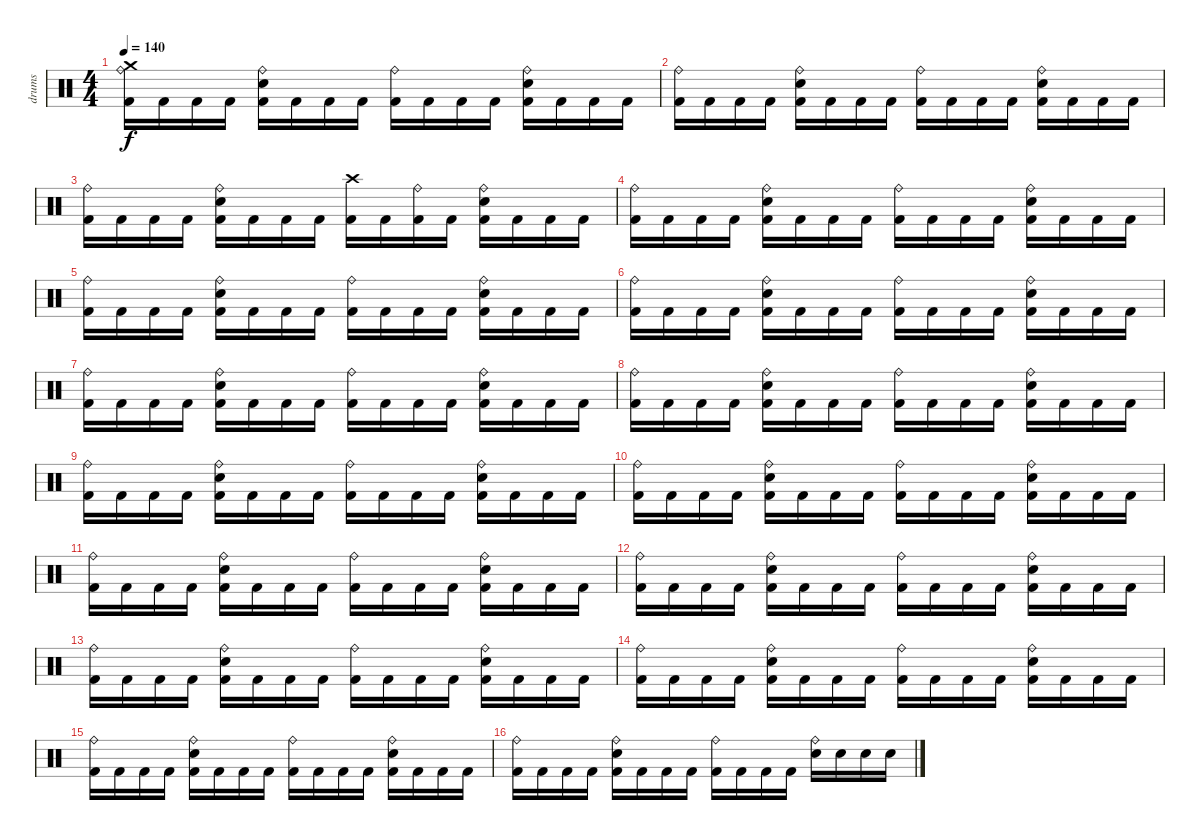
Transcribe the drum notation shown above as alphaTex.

\track ("drums" "drums") {instrument percussion}
\staff {score}
\articulation defaults
\ts (4 4)
\tempo 140
\clef neutral
\ks c
("Crash medium (hit)" "Ride (bell)" "Kick (hit) 2").16{dy f} "Kick (hit) 2".16 "Kick (hit) 2".16 "Kick (hit) 2".16 ("Ride (bell)" "Electric Snare (hit)" "Kick (hit) 2").16 "Kick (hit) 2".16 "Kick (hit) 2".16 "Kick (hit) 2".16 ("Ride (bell)" "Kick (hit) 2").16 "Kick (hit) 2".16 "Kick (hit) 2".16 "Kick (hit) 2".16 ("Ride (bell)" "Electric Snare (hit)" "Kick (hit) 2").16 "Kick (hit) 2".16 "Kick (hit) 2".16 "Kick (hit) 2".16 |
("Ride (bell)" "Kick (hit) 2").16 "Kick (hit) 2".16 "Kick (hit) 2".16 "Kick (hit) 2".16 ("Ride (bell)" "Electric Snare (hit)" "Kick (hit) 2").16 "Kick (hit) 2".16 "Kick (hit) 2".16 "Kick (hit) 2".16 ("Ride (bell)" "Kick (hit) 2").16 "Kick (hit) 2".16 "Kick (hit) 2".16 "Kick (hit) 2".16 ("Ride (bell)" "Electric Snare (hit)" "Kick (hit) 2").16 "Kick (hit) 2".16 "Kick (hit) 2".16 "Kick (hit) 2".16 |
("Ride (bell)" "Kick (hit) 2").16 "Kick (hit) 2".16 "Kick (hit) 2".16 "Kick (hit) 2".16 ("Ride (bell)" "Electric Snare (hit)" "Kick (hit) 2").16 "Kick (hit) 2".16 "Kick (hit) 2".16 "Kick (hit) 2".16 ("Crash high (hit)" "Kick (hit) 2").16 "Kick (hit) 2".16 ("Ride (bell)" "Kick (hit) 2").16 "Kick (hit) 2".16 ("Ride (bell)" "Electric Snare (hit)" "Kick (hit) 2").16 "Kick (hit) 2".16 "Kick (hit) 2".16 "Kick (hit) 2".16 |
("Ride (bell)" "Kick (hit) 2").16 "Kick (hit) 2".16 "Kick (hit) 2".16 "Kick (hit) 2".16 ("Ride (bell)" "Electric Snare (hit)" "Kick (hit) 2").16 "Kick (hit) 2".16 "Kick (hit) 2".16 "Kick (hit) 2".16 ("Ride (bell)" "Kick (hit) 2").16 "Kick (hit) 2".16 "Kick (hit) 2".16 "Kick (hit) 2".16 ("Ride (bell)" "Electric Snare (hit)" "Kick (hit) 2").16 "Kick (hit) 2".16 "Kick (hit) 2".16 "Kick (hit) 2".16 |
("Ride (bell)" "Kick (hit) 2").16 "Kick (hit) 2".16 "Kick (hit) 2".16 "Kick (hit) 2".16 ("Ride (bell)" "Electric Snare (hit)" "Kick (hit) 2").16 "Kick (hit) 2".16 "Kick (hit) 2".16 "Kick (hit) 2".16 ("Ride (bell)" "Kick (hit) 2").16 "Kick (hit) 2".16 "Kick (hit) 2".16 "Kick (hit) 2".16 ("Ride (bell)" "Electric Snare (hit)" "Kick (hit) 2").16 "Kick (hit) 2".16 "Kick (hit) 2".16 "Kick (hit) 2".16 |
("Ride (bell)" "Kick (hit) 2").16 "Kick (hit) 2".16 "Kick (hit) 2".16 "Kick (hit) 2".16 ("Ride (bell)" "Electric Snare (hit)" "Kick (hit) 2").16 "Kick (hit) 2".16 "Kick (hit) 2".16 "Kick (hit) 2".16 ("Ride (bell)" "Kick (hit) 2").16 "Kick (hit) 2".16 "Kick (hit) 2".16 "Kick (hit) 2".16 ("Ride (bell)" "Electric Snare (hit)" "Kick (hit) 2").16 "Kick (hit) 2".16 "Kick (hit) 2".16 "Kick (hit) 2".16 |
("Ride (bell)" "Kick (hit) 2").16 "Kick (hit) 2".16 "Kick (hit) 2".16 "Kick (hit) 2".16 ("Ride (bell)" "Electric Snare (hit)" "Kick (hit) 2").16 "Kick (hit) 2".16 "Kick (hit) 2".16 "Kick (hit) 2".16 ("Ride (bell)" "Kick (hit) 2").16 "Kick (hit) 2".16 "Kick (hit) 2".16 "Kick (hit) 2".16 ("Ride (bell)" "Electric Snare (hit)" "Kick (hit) 2").16 "Kick (hit) 2".16 "Kick (hit) 2".16 "Kick (hit) 2".16 |
("Ride (bell)" "Kick (hit) 2").16 "Kick (hit) 2".16 "Kick (hit) 2".16 "Kick (hit) 2".16 ("Ride (bell)" "Electric Snare (hit)" "Kick (hit) 2").16 "Kick (hit) 2".16 "Kick (hit) 2".16 "Kick (hit) 2".16 ("Ride (bell)" "Kick (hit) 2").16 "Kick (hit) 2".16 "Kick (hit) 2".16 "Kick (hit) 2".16 ("Ride (bell)" "Electric Snare (hit)" "Kick (hit) 2").16 "Kick (hit) 2".16 "Kick (hit) 2".16 "Kick (hit) 2".16 |
("Ride (bell)" "Kick (hit) 2").16 "Kick (hit) 2".16 "Kick (hit) 2".16 "Kick (hit) 2".16 ("Ride (bell)" "Electric Snare (hit)" "Kick (hit) 2").16 "Kick (hit) 2".16 "Kick (hit) 2".16 "Kick (hit) 2".16 ("Ride (bell)" "Kick (hit) 2").16 "Kick (hit) 2".16 "Kick (hit) 2".16 "Kick (hit) 2".16 ("Ride (bell)" "Electric Snare (hit)" "Kick (hit) 2").16 "Kick (hit) 2".16 "Kick (hit) 2".16 "Kick (hit) 2".16 |
("Ride (bell)" "Kick (hit) 2").16 "Kick (hit) 2".16 "Kick (hit) 2".16 "Kick (hit) 2".16 ("Ride (bell)" "Electric Snare (hit)" "Kick (hit) 2").16 "Kick (hit) 2".16 "Kick (hit) 2".16 "Kick (hit) 2".16 ("Ride (bell)" "Kick (hit) 2").16 "Kick (hit) 2".16 "Kick (hit) 2".16 "Kick (hit) 2".16 ("Ride (bell)" "Electric Snare (hit)" "Kick (hit) 2").16 "Kick (hit) 2".16 "Kick (hit) 2".16 "Kick (hit) 2".16 |
("Ride (bell)" "Kick (hit) 2").16 "Kick (hit) 2".16 "Kick (hit) 2".16 "Kick (hit) 2".16 ("Ride (bell)" "Electric Snare (hit)" "Kick (hit) 2").16 "Kick (hit) 2".16 "Kick (hit) 2".16 "Kick (hit) 2".16 ("Ride (bell)" "Kick (hit) 2").16 "Kick (hit) 2".16 "Kick (hit) 2".16 "Kick (hit) 2".16 ("Ride (bell)" "Electric Snare (hit)" "Kick (hit) 2").16 "Kick (hit) 2".16 "Kick (hit) 2".16 "Kick (hit) 2".16 |
("Ride (bell)" "Kick (hit) 2").16 "Kick (hit) 2".16 "Kick (hit) 2".16 "Kick (hit) 2".16 ("Ride (bell)" "Electric Snare (hit)" "Kick (hit) 2").16 "Kick (hit) 2".16 "Kick (hit) 2".16 "Kick (hit) 2".16 ("Ride (bell)" "Kick (hit) 2").16 "Kick (hit) 2".16 "Kick (hit) 2".16 "Kick (hit) 2".16 ("Ride (bell)" "Electric Snare (hit)" "Kick (hit) 2").16 "Kick (hit) 2".16 "Kick (hit) 2".16 "Kick (hit) 2".16 |
("Ride (bell)" "Kick (hit) 2").16 "Kick (hit) 2".16 "Kick (hit) 2".16 "Kick (hit) 2".16 ("Ride (bell)" "Electric Snare (hit)" "Kick (hit) 2").16 "Kick (hit) 2".16 "Kick (hit) 2".16 "Kick (hit) 2".16 ("Ride (bell)" "Kick (hit) 2").16 "Kick (hit) 2".16 "Kick (hit) 2".16 "Kick (hit) 2".16 ("Ride (bell)" "Electric Snare (hit)" "Kick (hit) 2").16 "Kick (hit) 2".16 "Kick (hit) 2".16 "Kick (hit) 2".16 |
("Ride (bell)" "Kick (hit) 2").16 "Kick (hit) 2".16 "Kick (hit) 2".16 "Kick (hit) 2".16 ("Ride (bell)" "Electric Snare (hit)" "Kick (hit) 2").16 "Kick (hit) 2".16 "Kick (hit) 2".16 "Kick (hit) 2".16 ("Ride (bell)" "Kick (hit) 2").16 "Kick (hit) 2".16 "Kick (hit) 2".16 "Kick (hit) 2".16 ("Ride (bell)" "Electric Snare (hit)" "Kick (hit) 2").16 "Kick (hit) 2".16 "Kick (hit) 2".16 "Kick (hit) 2".16 |
("Ride (bell)" "Kick (hit) 2").16 "Kick (hit) 2".16 "Kick (hit) 2".16 "Kick (hit) 2".16 ("Ride (bell)" "Electric Snare (hit)" "Kick (hit) 2").16 "Kick (hit) 2".16 "Kick (hit) 2".16 "Kick (hit) 2".16 ("Ride (bell)" "Kick (hit) 2").16 "Kick (hit) 2".16 "Kick (hit) 2".16 "Kick (hit) 2".16 ("Ride (bell)" "Electric Snare (hit)" "Kick (hit) 2").16 "Kick (hit) 2".16 "Kick (hit) 2".16 "Kick (hit) 2".16 |
("Ride (bell)" "Kick (hit) 2").16 "Kick (hit) 2".16 "Kick (hit) 2".16 "Kick (hit) 2".16 ("Ride (bell)" "Electric Snare (hit)" "Kick (hit) 2").16 "Kick (hit) 2".16 "Kick (hit) 2".16 "Kick (hit) 2".16 ("Ride (bell)" "Kick (hit) 2").16 "Kick (hit) 2".16 "Kick (hit) 2".16 "Kick (hit) 2".16 ("Ride (bell)" "Electric Snare (hit)").16 "Electric Snare (hit)".16 "Electric Snare (hit)".16 "Electric Snare (hit)".16
